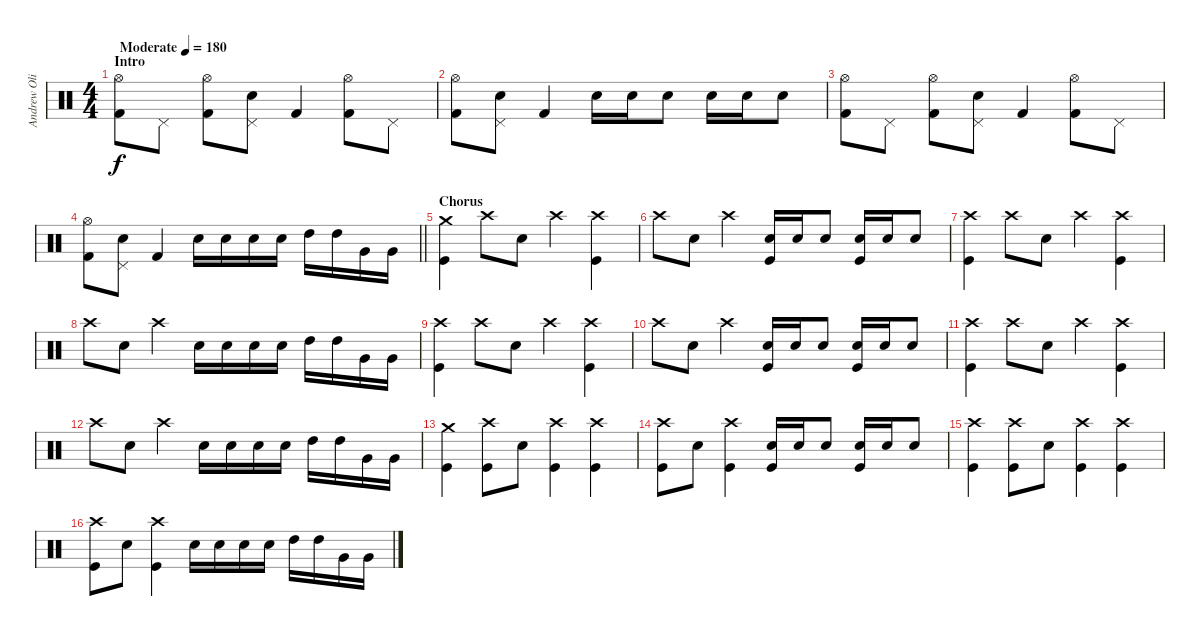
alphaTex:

\track ("Andrew Oliver" "Andrew Oli") {instrument percussion}
\staff {score}
\articulation defaults
\ts (4 4)
\section ("" "Intro")
\tempo (180 "Moderate")
\clef neutral
\ks c
("Hi-Hat (open)" "Kick (hit) 2").8{dy f} "Pedal Hi-Hat (hit)".8 ("Hi-Hat (open)" "Kick (hit) 2").8 ("Pedal Hi-Hat (hit)" "Electric Snare (hit)").8 "Kick (hit) 2".4 ("Hi-Hat (open)" "Kick (hit) 2").8 "Pedal Hi-Hat (hit)".8 |
("Hi-Hat (open)" "Kick (hit) 2").8 ("Pedal Hi-Hat (hit)" "Electric Snare (hit)").8 "Kick (hit) 2".4 "Electric Snare (hit)".16 "Electric Snare (hit)".16 "Electric Snare (hit)".8 "Electric Snare (hit)".16 "Electric Snare (hit)".16 "Electric Snare (hit)".8 |
("Hi-Hat (open)" "Kick (hit) 2").8 "Pedal Hi-Hat (hit)".8 ("Hi-Hat (open)" "Kick (hit) 2").8 ("Pedal Hi-Hat (hit)" "Electric Snare (hit)").8 "Kick (hit) 2".4 ("Hi-Hat (open)" "Kick (hit) 2").8 "Pedal Hi-Hat (hit)".8 |
\barLineRight lightlight
("Hi-Hat (open)" "Kick (hit) 2").8 ("Pedal Hi-Hat (hit)" "Electric Snare (hit)").8 "Kick (hit) 2".4 "Electric Snare (hit)".16 "Electric Snare (hit)".16 "Electric Snare (hit)".16 "Electric Snare (hit)".16 "High Tom (hit)".16 "High Tom (hit)".16 "Very Low Tom (hit)".16 "Very Low Tom (hit)".16 |
\section ("" "Chorus")
("Crash medium (hit)" "Kick (hit)").4 "Crash high (hit)".8 "Electric Snare (hit)".8 "Crash high (hit)".4 ("Crash high (hit)" "Kick (hit)").4 |
"Crash high (hit)".8 "Electric Snare (hit)".8 "Crash high (hit)".4 ("Kick (hit)" "Electric Snare (hit)").16 "Electric Snare (hit)".16 "Electric Snare (hit)".8 ("Kick (hit)" "Electric Snare (hit)").16 "Electric Snare (hit)".16 "Electric Snare (hit)".8 |
("Crash high (hit)" "Kick (hit)").4 "Crash high (hit)".8 "Electric Snare (hit)".8 "Crash high (hit)".4 ("Crash high (hit)" "Kick (hit)").4 |
"Crash high (hit)".8 "Electric Snare (hit)".8 "Crash high (hit)".4 "Electric Snare (hit)".16 "Electric Snare (hit)".16 "Electric Snare (hit)".16 "Electric Snare (hit)".16 "High Tom (hit)".16 "High Tom (hit)".16 "Very Low Tom (hit)".16 "Very Low Tom (hit)".16 |
("Crash high (hit)" "Kick (hit)").4 "Crash high (hit)".8 "Electric Snare (hit)".8 "Crash high (hit)".4 ("Crash high (hit)" "Kick (hit)").4 |
"Crash high (hit)".8 "Electric Snare (hit)".8 "Crash high (hit)".4 ("Kick (hit)" "Electric Snare (hit)").16 "Electric Snare (hit)".16 "Electric Snare (hit)".8 ("Kick (hit)" "Electric Snare (hit)").16 "Electric Snare (hit)".16 "Electric Snare (hit)".8 |
("Crash high (hit)" "Kick (hit)").4 "Crash high (hit)".8 "Electric Snare (hit)".8 "Crash high (hit)".4 ("Crash high (hit)" "Kick (hit)").4 |
"Crash high (hit)".8 "Electric Snare (hit)".8 "Crash high (hit)".4 "Electric Snare (hit)".16 "Electric Snare (hit)".16 "Electric Snare (hit)".16 "Electric Snare (hit)".16 "High Tom (hit)".16 "High Tom (hit)".16 "Very Low Tom (hit)".16 "Very Low Tom (hit)".16 |
("Crash medium (hit)" "Kick (hit)").4 ("Crash high (hit)" "Kick (hit)").8 "Electric Snare (hit)".8 ("Crash high (hit)" "Kick (hit)").4 ("Crash high (hit)" "Kick (hit)").4 |
("Crash high (hit)" "Kick (hit)").8 "Electric Snare (hit)".8 ("Crash high (hit)" "Kick (hit)").4 ("Kick (hit)" "Electric Snare (hit)").16 "Electric Snare (hit)".16 "Electric Snare (hit)".8 ("Kick (hit)" "Electric Snare (hit)").16 "Electric Snare (hit)".16 "Electric Snare (hit)".8 |
("Crash high (hit)" "Kick (hit)").4 ("Crash high (hit)" "Kick (hit)").8 "Electric Snare (hit)".8 ("Crash high (hit)" "Kick (hit)").4 ("Crash high (hit)" "Kick (hit)").4 |
("Crash high (hit)" "Kick (hit)").8 "Electric Snare (hit)".8 ("Crash high (hit)" "Kick (hit)").4 "Electric Snare (hit)".16 "Electric Snare (hit)".16 "Electric Snare (hit)".16 "Electric Snare (hit)".16 "High Tom (hit)".16 "High Tom (hit)".16 "Very Low Tom (hit)".16 "Very Low Tom (hit)".16
